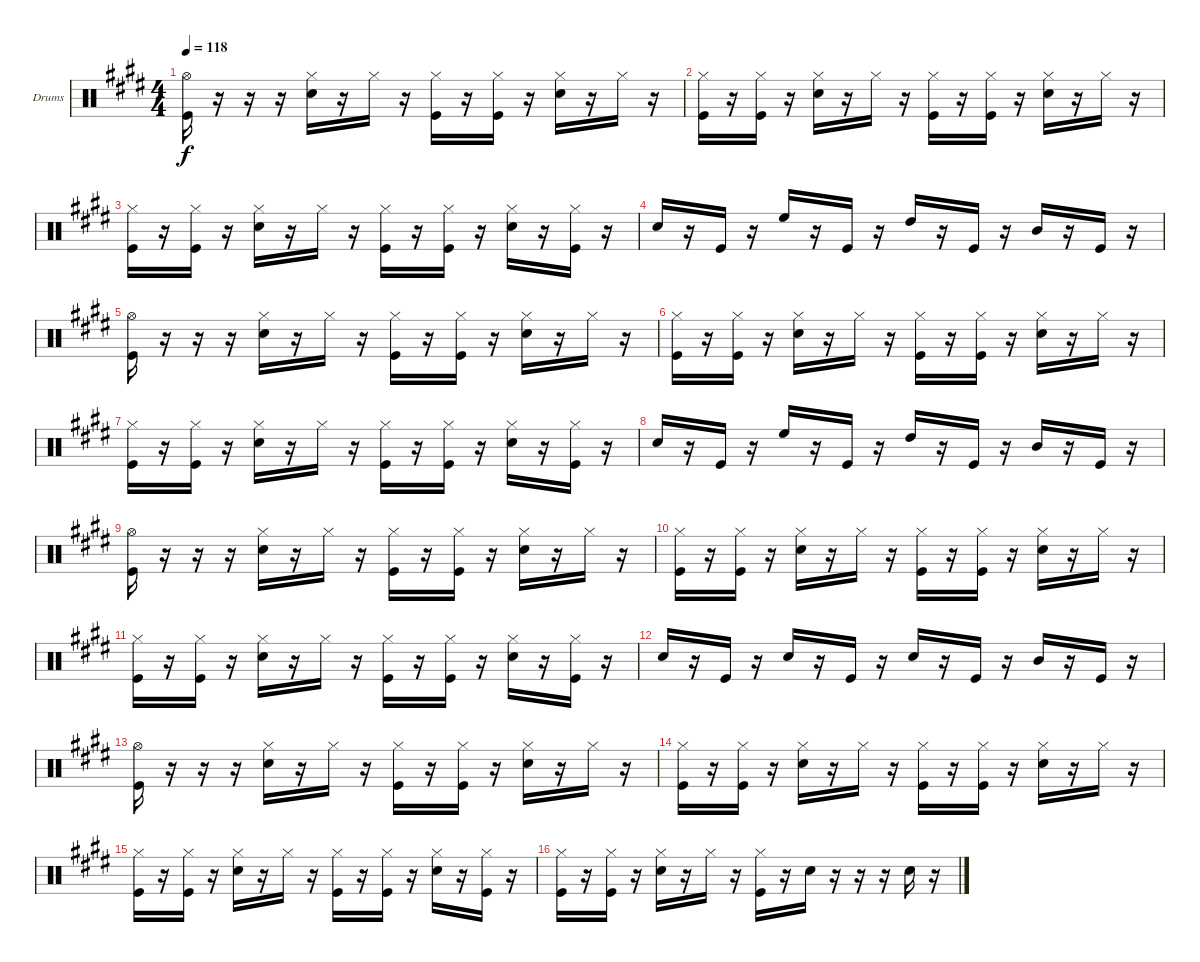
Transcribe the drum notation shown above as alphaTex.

\bracketExtendMode groupsimilarinstruments
\firstSystemTrackNameOrientation horizontal
\otherSystemsTrackNameOrientation horizontal
\track ("Drumkit" "Drums") {instrument percussion}
\staff {score}
\articulation defaults
\ts (4 4)
\tempo 118
\clef neutral
\ks e
("Hi-Hat (open)" "Kick (hit)").16{dy f} r.16 r.16 r.16 ("Hi-Hat (closed)" "Snare (hit) 2").16 r.16 "Hi-Hat (closed)".16 r.16 ("Hi-Hat (closed)" "Kick (hit)").16 r.16 ("Hi-Hat (closed)" "Kick (hit)").16 r.16 ("Hi-Hat (closed)" "Snare (hit) 2").16 r.16 "Hi-Hat (closed)".16 r.16 |
("Hi-Hat (closed)" "Kick (hit)").16 r.16 ("Hi-Hat (closed)" "Kick (hit)").16 r.16 ("Hi-Hat (closed)" "Snare (hit) 2").16 r.16 "Hi-Hat (closed)".16 r.16 ("Hi-Hat (closed)" "Kick (hit)").16 r.16 ("Hi-Hat (closed)" "Kick (hit)").16 r.16 ("Hi-Hat (closed)" "Snare (hit) 2").16 r.16 "Hi-Hat (closed)".16 r.16 |
("Hi-Hat (closed)" "Kick (hit)").16 r.16 ("Hi-Hat (closed)" "Kick (hit)").16 r.16 ("Hi-Hat (closed)" "Snare (hit) 2").16 r.16 "Hi-Hat (closed)".16 r.16 ("Hi-Hat (closed)" "Kick (hit)").16 r.16 ("Hi-Hat (closed)" "Kick (hit)").16 r.16 ("Hi-Hat (closed)" "Snare (hit) 2").16 r.16 ("Hi-Hat (closed)" "Kick (hit)").16 r.16 |
"Snare (hit) 2".16 r.16 "Kick (hit)".16 r.16 "High Floor Tom (hit)".16 r.16 "Kick (hit)".16 r.16 "High Tom (hit)".16 r.16 "Kick (hit)".16 r.16 "Mid Tom (hit)".16 r.16 "Kick (hit)".16 r.16 |
("Hi-Hat (open)" "Kick (hit)").16 r.16 r.16 r.16 ("Hi-Hat (closed)" "Snare (hit) 2").16 r.16 "Hi-Hat (closed)".16 r.16 ("Hi-Hat (closed)" "Kick (hit)").16 r.16 ("Hi-Hat (closed)" "Kick (hit)").16 r.16 ("Hi-Hat (closed)" "Snare (hit) 2").16 r.16 "Hi-Hat (closed)".16 r.16 |
("Hi-Hat (closed)" "Kick (hit)").16 r.16 ("Hi-Hat (closed)" "Kick (hit)").16 r.16 ("Hi-Hat (closed)" "Snare (hit) 2").16 r.16 "Hi-Hat (closed)".16 r.16 ("Hi-Hat (closed)" "Kick (hit)").16 r.16 ("Hi-Hat (closed)" "Kick (hit)").16 r.16 ("Hi-Hat (closed)" "Snare (hit) 2").16 r.16 "Hi-Hat (closed)".16 r.16 |
("Hi-Hat (closed)" "Kick (hit)").16 r.16 ("Hi-Hat (closed)" "Kick (hit)").16 r.16 ("Hi-Hat (closed)" "Snare (hit) 2").16 r.16 "Hi-Hat (closed)".16 r.16 ("Hi-Hat (closed)" "Kick (hit)").16 r.16 ("Hi-Hat (closed)" "Kick (hit)").16 r.16 ("Hi-Hat (closed)" "Snare (hit) 2").16 r.16 ("Hi-Hat (closed)" "Kick (hit)").16 r.16 |
"Snare (hit) 2".16 r.16 "Kick (hit)".16 r.16 "High Floor Tom (hit)".16 r.16 "Kick (hit)".16 r.16 "High Tom (hit)".16 r.16 "Kick (hit)".16 r.16 "Mid Tom (hit)".16 r.16 "Kick (hit)".16 r.16 |
("Hi-Hat (open)" "Kick (hit)").16 r.16 r.16 r.16 ("Hi-Hat (closed)" "Snare (hit) 2").16 r.16 "Hi-Hat (closed)".16 r.16 ("Hi-Hat (closed)" "Kick (hit)").16 r.16 ("Hi-Hat (closed)" "Kick (hit)").16 r.16 ("Hi-Hat (closed)" "Snare (hit) 2").16 r.16 "Hi-Hat (closed)".16 r.16 |
("Hi-Hat (closed)" "Kick (hit)").16 r.16 ("Hi-Hat (closed)" "Kick (hit)").16 r.16 ("Hi-Hat (closed)" "Snare (hit) 2").16 r.16 "Hi-Hat (closed)".16 r.16 ("Hi-Hat (closed)" "Kick (hit)").16 r.16 ("Hi-Hat (closed)" "Kick (hit)").16 r.16 ("Hi-Hat (closed)" "Snare (hit) 2").16 r.16 "Hi-Hat (closed)".16 r.16 |
("Hi-Hat (closed)" "Kick (hit)").16 r.16 ("Hi-Hat (closed)" "Kick (hit)").16 r.16 ("Hi-Hat (closed)" "Snare (hit) 2").16 r.16 "Hi-Hat (closed)".16 r.16 ("Hi-Hat (closed)" "Kick (hit)").16 r.16 ("Hi-Hat (closed)" "Kick (hit)").16 r.16 ("Hi-Hat (closed)" "Snare (hit) 2").16 r.16 ("Hi-Hat (closed)" "Kick (hit)").16 r.16 |
"Snare (hit) 2".16 r.16 "Kick (hit)".16 r.16 "Snare (hit) 2".16 r.16 "Kick (hit)".16 r.16 "Snare (hit) 2".16 r.16 "Kick (hit)".16 r.16 "Mid Tom (hit)".16 r.16 "Kick (hit)".16 r.16 |
("Hi-Hat (open)" "Kick (hit)").16 r.16 r.16 r.16 ("Hi-Hat (closed)" "Snare (hit) 2").16 r.16 "Hi-Hat (closed)".16 r.16 ("Hi-Hat (closed)" "Kick (hit)").16 r.16 ("Hi-Hat (closed)" "Kick (hit)").16 r.16 ("Hi-Hat (closed)" "Snare (hit) 2").16 r.16 "Hi-Hat (closed)".16 r.16 |
("Hi-Hat (closed)" "Kick (hit)").16 r.16 ("Hi-Hat (closed)" "Kick (hit)").16 r.16 ("Hi-Hat (closed)" "Snare (hit) 2").16 r.16 "Hi-Hat (closed)".16 r.16 ("Hi-Hat (closed)" "Kick (hit)").16 r.16 ("Hi-Hat (closed)" "Kick (hit)").16 r.16 ("Hi-Hat (closed)" "Snare (hit) 2").16 r.16 "Hi-Hat (closed)".16 r.16 |
("Hi-Hat (closed)" "Kick (hit)").16 r.16 ("Hi-Hat (closed)" "Kick (hit)").16 r.16 ("Hi-Hat (closed)" "Snare (hit) 2").16 r.16 "Hi-Hat (closed)".16 r.16 ("Hi-Hat (closed)" "Kick (hit)").16 r.16 ("Hi-Hat (closed)" "Kick (hit)").16 r.16 ("Hi-Hat (closed)" "Snare (hit) 2").16 r.16 ("Hi-Hat (closed)" "Kick (hit)").16 r.16 |
("Hi-Hat (closed)" "Kick (hit)").16 r.16 ("Hi-Hat (closed)" "Kick (hit)").16 r.16 ("Hi-Hat (closed)" "Snare (hit) 2").16 r.16 "Hi-Hat (closed)".16 r.16 ("Hi-Hat (closed)" "Kick (hit)").16 r.16 "Snare (hit) 2".16 r.16 r.16 r.16 "Snare (hit) 2".16 r.16
